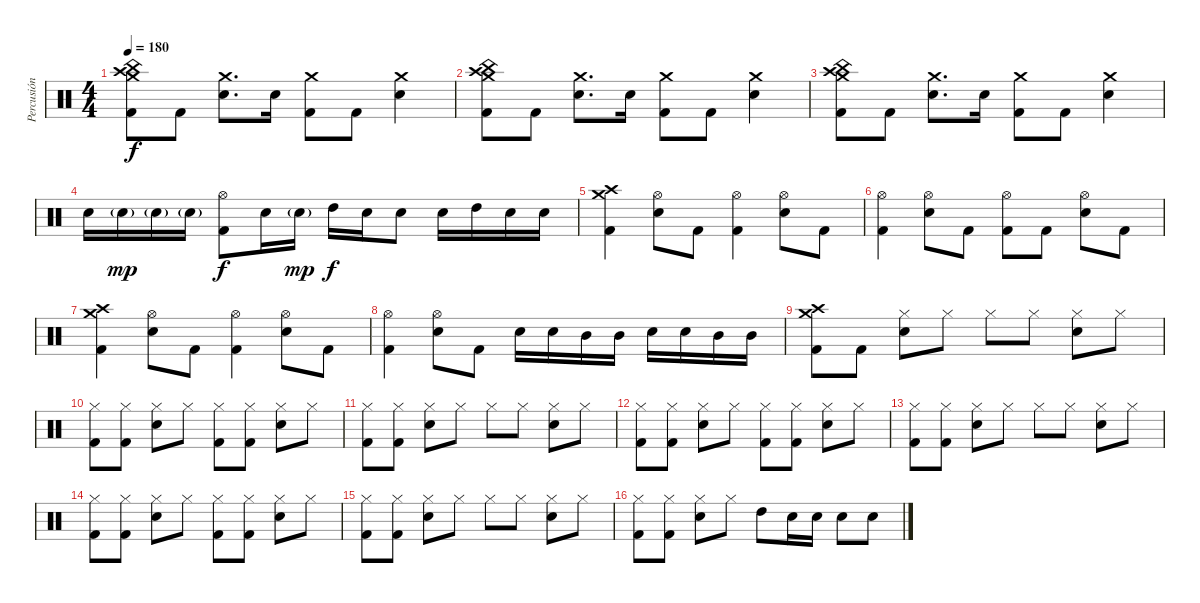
\track ("Percusión" "Percusión") {instrument percussion}
\staff {score}
\articulation defaults
\ts (4 4)
\tempo 180
\clef neutral
\ks c
("Crash high (hit)" "Crash medium (hit)" "China (hit)" "Kick (hit) 2").8{dy f} "Kick (hit) 2".8 ("Crash medium (hit)" "Electric Snare (hit)").8{d} "Electric Snare (hit)".16 ("Crash medium (hit)" "Kick (hit) 2").8 "Kick (hit) 2".8 ("Crash medium (hit)" "Electric Snare (hit)").4 |
("Crash high (hit)" "Crash medium (hit)" "China (hit)" "Kick (hit) 2").8 "Kick (hit) 2".8 ("Crash medium (hit)" "Electric Snare (hit)").8{d} "Electric Snare (hit)".16 ("Crash medium (hit)" "Kick (hit) 2").8 "Kick (hit) 2".8 ("Crash medium (hit)" "Electric Snare (hit)").4 |
("Crash high (hit)" "Crash medium (hit)" "China (hit)" "Kick (hit) 2").8 "Kick (hit) 2".8 ("Crash medium (hit)" "Electric Snare (hit)").8{d} "Electric Snare (hit)".16 ("Crash medium (hit)" "Kick (hit) 2").8 "Kick (hit) 2".8 ("Crash medium (hit)" "Electric Snare (hit)").4 |
"Electric Snare (hit)".16 "Electric Snare (hit)"{g}.16{dy mp} "Electric Snare (hit)"{g}.16 "Electric Snare (hit)"{g}.16 ("Hi-Hat (open)" "Kick (hit) 2").8{dy f} "Electric Snare (hit)".16 "Electric Snare (hit)"{g}.16{dy mp} "High Tom (hit)".16{dy f} "Electric Snare (hit)".16 "Electric Snare (hit)".8 "Electric Snare (hit)".16 "High Tom (hit)".16 "Electric Snare (hit)".16 "Electric Snare (hit)".16 |
("Crash high (hit)" "Crash medium (hit)" "Kick (hit) 2").4 ("Hi-Hat (open)" "Electric Snare (hit)").8 "Kick (hit) 2".8 ("Hi-Hat (open)" "Kick (hit) 2").4 ("Hi-Hat (open)" "Electric Snare (hit)").8 "Kick (hit) 2".8 |
("Hi-Hat (open)" "Kick (hit) 2").4 ("Hi-Hat (open)" "Electric Snare (hit)").8 "Kick (hit) 2".8 ("Hi-Hat (open)" "Kick (hit) 2").8 "Kick (hit) 2".8 ("Hi-Hat (open)" "Electric Snare (hit)").8 "Kick (hit) 2".8 |
("Crash high (hit)" "Crash medium (hit)" "Kick (hit) 2").4 ("Hi-Hat (open)" "Electric Snare (hit)").8 "Kick (hit) 2".8 ("Hi-Hat (open)" "Kick (hit) 2").4 ("Hi-Hat (open)" "Electric Snare (hit)").8 "Kick (hit) 2".8 |
("Hi-Hat (open)" "Kick (hit) 2").4 ("Hi-Hat (open)" "Electric Snare (hit)").8 "Kick (hit) 2".8 "Electric Snare (hit)".16 "Electric Snare (hit)".16 "Mid Tom (hit)".16 "Mid Tom (hit)".16 "Electric Snare (hit)".16 "Electric Snare (hit)".16 "Mid Tom (hit)".16 "Mid Tom (hit)".16 |
("Crash high (hit)" "Crash medium (hit)" "Kick (hit) 2").8 "Kick (hit) 2".8 ("Hi-Hat (closed)" "Electric Snare (hit)").8 "Hi-Hat (closed)".8 "Hi-Hat (closed)".8 "Hi-Hat (closed)".8 ("Hi-Hat (closed)" "Electric Snare (hit)").8 "Hi-Hat (closed)".8 |
("Hi-Hat (closed)" "Kick (hit) 2").8 ("Hi-Hat (closed)" "Kick (hit) 2").8 ("Hi-Hat (closed)" "Electric Snare (hit)").8 "Hi-Hat (closed)".8 ("Hi-Hat (closed)" "Kick (hit) 2").8 ("Hi-Hat (closed)" "Kick (hit) 2").8 ("Hi-Hat (closed)" "Electric Snare (hit)").8 "Hi-Hat (closed)".8 |
("Hi-Hat (closed)" "Kick (hit) 2").8 ("Hi-Hat (closed)" "Kick (hit) 2").8 ("Hi-Hat (closed)" "Electric Snare (hit)").8 "Hi-Hat (closed)".8 "Hi-Hat (closed)".8 "Hi-Hat (closed)".8 ("Hi-Hat (closed)" "Electric Snare (hit)").8 "Hi-Hat (closed)".8 |
("Hi-Hat (closed)" "Kick (hit) 2").8 ("Hi-Hat (closed)" "Kick (hit) 2").8 ("Hi-Hat (closed)" "Electric Snare (hit)").8 "Hi-Hat (closed)".8 ("Hi-Hat (closed)" "Kick (hit) 2").8 ("Hi-Hat (closed)" "Kick (hit) 2").8 ("Hi-Hat (closed)" "Electric Snare (hit)").8 "Hi-Hat (closed)".8 |
("Hi-Hat (closed)" "Kick (hit) 2").8 ("Hi-Hat (closed)" "Kick (hit) 2").8 ("Hi-Hat (closed)" "Electric Snare (hit)").8 "Hi-Hat (closed)".8 "Hi-Hat (closed)".8 "Hi-Hat (closed)".8 ("Hi-Hat (closed)" "Electric Snare (hit)").8 "Hi-Hat (closed)".8 |
("Hi-Hat (closed)" "Kick (hit) 2").8 ("Hi-Hat (closed)" "Kick (hit) 2").8 ("Hi-Hat (closed)" "Electric Snare (hit)").8 "Hi-Hat (closed)".8 ("Hi-Hat (closed)" "Kick (hit) 2").8 ("Hi-Hat (closed)" "Kick (hit) 2").8 ("Hi-Hat (closed)" "Electric Snare (hit)").8 "Hi-Hat (closed)".8 |
("Hi-Hat (closed)" "Kick (hit) 2").8 ("Hi-Hat (closed)" "Kick (hit) 2").8 ("Hi-Hat (closed)" "Electric Snare (hit)").8 "Hi-Hat (closed)".8 "Hi-Hat (closed)".8 "Hi-Hat (closed)".8 ("Hi-Hat (closed)" "Electric Snare (hit)").8 "Hi-Hat (closed)".8 |
("Hi-Hat (closed)" "Kick (hit) 2").8 ("Hi-Hat (closed)" "Kick (hit) 2").8 ("Hi-Hat (closed)" "Electric Snare (hit)").8 "Hi-Hat (closed)".8 "High Tom (hit)".8 "Electric Snare (hit)".16 "Electric Snare (hit)".16 "Electric Snare (hit)".8 "Electric Snare (hit)".8
